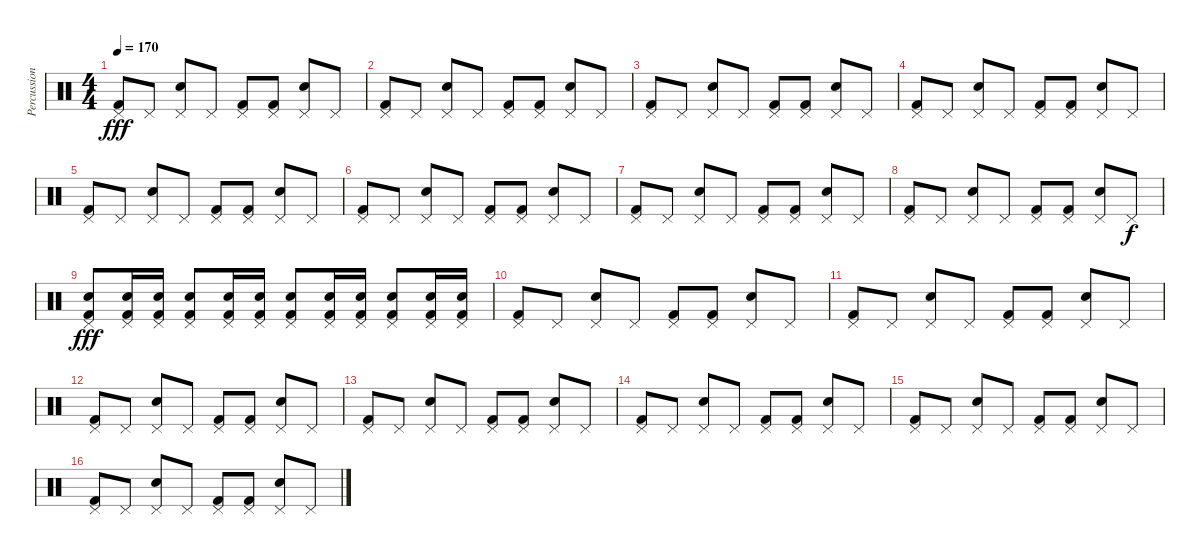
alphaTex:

\track ("Percussion" "Percussion") {instrument percussion}
\staff {score}
\articulation defaults
\ts (4 4)
\tempo 170
\clef neutral
\ks c
("Pedal Hi-Hat (hit)" "Kick (hit) 2").8{dy fff} "Pedal Hi-Hat (hit)".8 ("Pedal Hi-Hat (hit)" "Snare (hit) 2").8 "Pedal Hi-Hat (hit)".8 ("Pedal Hi-Hat (hit)" "Kick (hit) 2").8 ("Pedal Hi-Hat (hit)" "Kick (hit) 2").8 ("Pedal Hi-Hat (hit)" "Snare (hit) 2").8 "Pedal Hi-Hat (hit)".8 |
("Pedal Hi-Hat (hit)" "Kick (hit) 2").8 "Pedal Hi-Hat (hit)".8 ("Pedal Hi-Hat (hit)" "Snare (hit) 2").8 "Pedal Hi-Hat (hit)".8 ("Pedal Hi-Hat (hit)" "Kick (hit) 2").8 ("Pedal Hi-Hat (hit)" "Kick (hit) 2").8 ("Pedal Hi-Hat (hit)" "Snare (hit) 2").8 "Pedal Hi-Hat (hit)".8 |
("Pedal Hi-Hat (hit)" "Kick (hit) 2").8 "Pedal Hi-Hat (hit)".8 ("Pedal Hi-Hat (hit)" "Snare (hit) 2").8 "Pedal Hi-Hat (hit)".8 ("Pedal Hi-Hat (hit)" "Kick (hit) 2").8 ("Pedal Hi-Hat (hit)" "Kick (hit) 2").8 ("Pedal Hi-Hat (hit)" "Snare (hit) 2").8 "Pedal Hi-Hat (hit)".8 |
("Pedal Hi-Hat (hit)" "Kick (hit) 2").8 "Pedal Hi-Hat (hit)".8 ("Pedal Hi-Hat (hit)" "Snare (hit) 2").8 "Pedal Hi-Hat (hit)".8 ("Pedal Hi-Hat (hit)" "Kick (hit) 2").8 ("Pedal Hi-Hat (hit)" "Kick (hit) 2").8 ("Pedal Hi-Hat (hit)" "Snare (hit) 2").8 "Pedal Hi-Hat (hit)".8 |
("Pedal Hi-Hat (hit)" "Kick (hit) 2").8 "Pedal Hi-Hat (hit)".8 ("Pedal Hi-Hat (hit)" "Snare (hit) 2").8 "Pedal Hi-Hat (hit)".8 ("Pedal Hi-Hat (hit)" "Kick (hit) 2").8 ("Pedal Hi-Hat (hit)" "Kick (hit) 2").8 ("Pedal Hi-Hat (hit)" "Snare (hit) 2").8 "Pedal Hi-Hat (hit)".8 |
("Pedal Hi-Hat (hit)" "Kick (hit) 2").8 "Pedal Hi-Hat (hit)".8 ("Pedal Hi-Hat (hit)" "Snare (hit) 2").8 "Pedal Hi-Hat (hit)".8 ("Pedal Hi-Hat (hit)" "Kick (hit) 2").8 ("Pedal Hi-Hat (hit)" "Kick (hit) 2").8 ("Pedal Hi-Hat (hit)" "Snare (hit) 2").8 "Pedal Hi-Hat (hit)".8 |
("Pedal Hi-Hat (hit)" "Kick (hit) 2").8 "Pedal Hi-Hat (hit)".8 ("Pedal Hi-Hat (hit)" "Snare (hit) 2").8 "Pedal Hi-Hat (hit)".8 ("Pedal Hi-Hat (hit)" "Kick (hit) 2").8 ("Pedal Hi-Hat (hit)" "Kick (hit) 2").8 ("Pedal Hi-Hat (hit)" "Snare (hit) 2").8 "Pedal Hi-Hat (hit)".8 |
("Pedal Hi-Hat (hit)" "Kick (hit) 2").8 "Pedal Hi-Hat (hit)".8 ("Pedal Hi-Hat (hit)" "Snare (hit) 2").8 "Pedal Hi-Hat (hit)".8 ("Pedal Hi-Hat (hit)" "Kick (hit) 2").8 ("Pedal Hi-Hat (hit)" "Kick (hit) 2").8 ("Pedal Hi-Hat (hit)" "Snare (hit) 2").8 "Pedal Hi-Hat (hit)".8{dy f} |
("Pedal Hi-Hat (hit)" "Snare (hit) 2" "Kick (hit) 2").8{dy fff} ("Pedal Hi-Hat (hit)" "Snare (hit) 2" "Kick (hit) 2").16 ("Pedal Hi-Hat (hit)" "Snare (hit) 2" "Kick (hit) 2").16 ("Pedal Hi-Hat (hit)" "Snare (hit) 2" "Kick (hit) 2").8 ("Pedal Hi-Hat (hit)" "Kick (hit) 2" "Snare (hit) 2").16 ("Pedal Hi-Hat (hit)" "Kick (hit) 2" "Snare (hit) 2").16 ("Pedal Hi-Hat (hit)" "Snare (hit) 2" "Kick (hit) 2").8 ("Pedal Hi-Hat (hit)" "Snare (hit) 2" "Kick (hit) 2").16 ("Pedal Hi-Hat (hit)" "Snare (hit) 2" "Kick (hit) 2").16 ("Pedal Hi-Hat (hit)" "Snare (hit) 2" "Kick (hit) 2").8 ("Pedal Hi-Hat (hit)" "Snare (hit) 2" "Kick (hit) 2").16 ("Pedal Hi-Hat (hit)" "Snare (hit) 2" "Kick (hit) 2").16 |
("Pedal Hi-Hat (hit)" "Kick (hit) 2").8 "Pedal Hi-Hat (hit)".8 ("Pedal Hi-Hat (hit)" "Snare (hit) 2").8 "Pedal Hi-Hat (hit)".8 ("Pedal Hi-Hat (hit)" "Kick (hit) 2").8 ("Pedal Hi-Hat (hit)" "Kick (hit) 2").8 ("Pedal Hi-Hat (hit)" "Snare (hit) 2").8 "Pedal Hi-Hat (hit)".8 |
("Pedal Hi-Hat (hit)" "Kick (hit) 2").8 "Pedal Hi-Hat (hit)".8 ("Pedal Hi-Hat (hit)" "Snare (hit) 2").8 "Pedal Hi-Hat (hit)".8 ("Pedal Hi-Hat (hit)" "Kick (hit) 2").8 ("Pedal Hi-Hat (hit)" "Kick (hit) 2").8 ("Pedal Hi-Hat (hit)" "Snare (hit) 2").8 "Pedal Hi-Hat (hit)".8 |
("Pedal Hi-Hat (hit)" "Kick (hit) 2").8 "Pedal Hi-Hat (hit)".8 ("Pedal Hi-Hat (hit)" "Snare (hit) 2").8 "Pedal Hi-Hat (hit)".8 ("Pedal Hi-Hat (hit)" "Kick (hit) 2").8 ("Pedal Hi-Hat (hit)" "Kick (hit) 2").8 ("Pedal Hi-Hat (hit)" "Snare (hit) 2").8 "Pedal Hi-Hat (hit)".8 |
("Pedal Hi-Hat (hit)" "Kick (hit) 2").8 "Pedal Hi-Hat (hit)".8 ("Pedal Hi-Hat (hit)" "Snare (hit) 2").8 "Pedal Hi-Hat (hit)".8 ("Pedal Hi-Hat (hit)" "Kick (hit) 2").8 ("Pedal Hi-Hat (hit)" "Kick (hit) 2").8 ("Pedal Hi-Hat (hit)" "Snare (hit) 2").8 "Pedal Hi-Hat (hit)".8 |
("Pedal Hi-Hat (hit)" "Kick (hit) 2").8 "Pedal Hi-Hat (hit)".8 ("Pedal Hi-Hat (hit)" "Snare (hit) 2").8 "Pedal Hi-Hat (hit)".8 ("Pedal Hi-Hat (hit)" "Kick (hit) 2").8 ("Pedal Hi-Hat (hit)" "Kick (hit) 2").8 ("Pedal Hi-Hat (hit)" "Snare (hit) 2").8 "Pedal Hi-Hat (hit)".8 |
("Pedal Hi-Hat (hit)" "Kick (hit) 2").8 "Pedal Hi-Hat (hit)".8 ("Pedal Hi-Hat (hit)" "Snare (hit) 2").8 "Pedal Hi-Hat (hit)".8 ("Pedal Hi-Hat (hit)" "Kick (hit) 2").8 ("Pedal Hi-Hat (hit)" "Kick (hit) 2").8 ("Pedal Hi-Hat (hit)" "Snare (hit) 2").8 "Pedal Hi-Hat (hit)".8 |
("Pedal Hi-Hat (hit)" "Kick (hit) 2").8 "Pedal Hi-Hat (hit)".8 ("Pedal Hi-Hat (hit)" "Snare (hit) 2").8 "Pedal Hi-Hat (hit)".8 ("Pedal Hi-Hat (hit)" "Kick (hit) 2").8 ("Pedal Hi-Hat (hit)" "Kick (hit) 2").8 ("Pedal Hi-Hat (hit)" "Snare (hit) 2").8 "Pedal Hi-Hat (hit)".8
